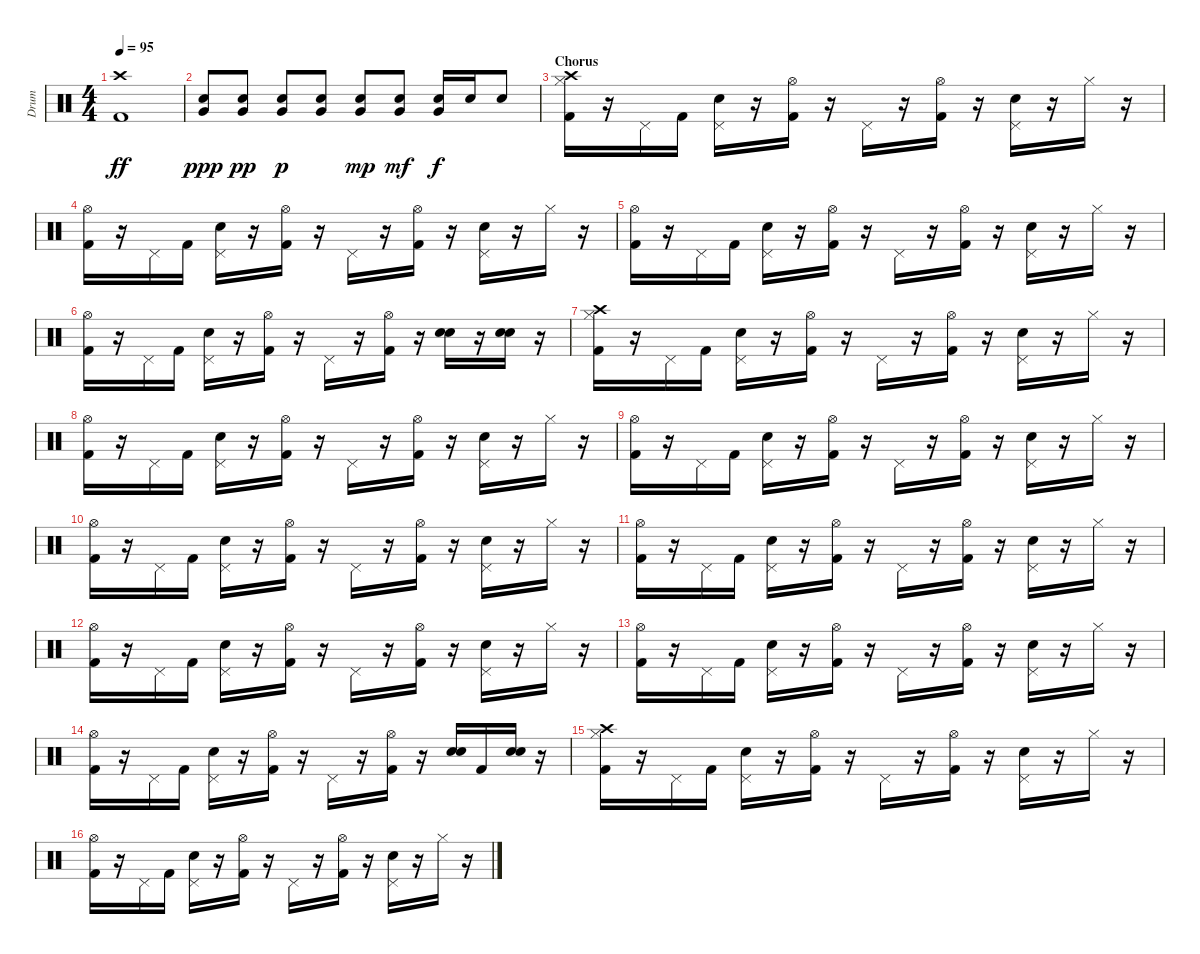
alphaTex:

\track ("Drum" "Drum") {instrument percussion}
\staff {score}
\articulation defaults
\ts (4 4)
\tempo 95
\clef neutral
\ks c
("Crash high (hit)" "Kick (hit) 2").1{dy ff} |
("Electric Snare (hit)" "Very Low Tom (hit)").8{dy ppp} ("Electric Snare (hit)" "Very Low Tom (hit)").8{dy pp} ("Electric Snare (hit)" "Very Low Tom (hit)").8{dy p} ("Electric Snare (hit)" "Very Low Tom (hit)").8 ("Electric Snare (hit)" "Very Low Tom (hit)").8{dy mp} ("Electric Snare (hit)" "Very Low Tom (hit)").8{dy mf} ("Electric Snare (hit)" "Very Low Tom (hit)").16{dy f} "Electric Snare (hit)".16 "Electric Snare (hit)".8 |
\section ("" "Chorus")
("Crash high (hit)" "Hi-Hat (closed)" "Kick (hit) 2").16 r.16 "Pedal Hi-Hat (hit)".16 "Kick (hit) 2".16 ("Pedal Hi-Hat (hit)" "Electric Snare (hit)").16 r.16 ("Hi-Hat (open)" "Kick (hit) 2").16 r.16 "Pedal Hi-Hat (hit)".16 r.16 ("Hi-Hat (open)" "Kick (hit) 2").16 r.16 ("Pedal Hi-Hat (hit)" "Electric Snare (hit)").16 r.16 "Hi-Hat (closed)".16 r.16 |
("Hi-Hat (open)" "Kick (hit) 2").16 r.16 "Pedal Hi-Hat (hit)".16 "Kick (hit) 2".16 ("Pedal Hi-Hat (hit)" "Electric Snare (hit)").16 r.16 ("Hi-Hat (open)" "Kick (hit) 2").16 r.16 "Pedal Hi-Hat (hit)".16 r.16 ("Hi-Hat (open)" "Kick (hit) 2").16 r.16 ("Pedal Hi-Hat (hit)" "Electric Snare (hit)").16 r.16 "Hi-Hat (closed)".16 r.16 |
("Hi-Hat (open)" "Kick (hit) 2").16 r.16 "Pedal Hi-Hat (hit)".16 "Kick (hit) 2".16 ("Pedal Hi-Hat (hit)" "Electric Snare (hit)").16 r.16 ("Hi-Hat (open)" "Kick (hit) 2").16 r.16 "Pedal Hi-Hat (hit)".16 r.16 ("Hi-Hat (open)" "Kick (hit) 2").16 r.16 ("Pedal Hi-Hat (hit)" "Electric Snare (hit)").16 r.16 "Hi-Hat (closed)".16 r.16 |
("Hi-Hat (open)" "Kick (hit) 2").16 r.16 "Pedal Hi-Hat (hit)".16 "Kick (hit) 2".16 ("Pedal Hi-Hat (hit)" "Electric Snare (hit)").16 r.16 ("Hi-Hat (open)" "Kick (hit) 2").16 r.16 "Pedal Hi-Hat (hit)".16 r.16 ("Hi-Hat (open)" "Kick (hit) 2").16 r.16 ("Electric Snare (hit)" "Electric Snare (hit)").16{bd 120} r.16 ("Electric Snare (hit)" "Electric Snare (hit)").16{bd 120} r.16 |
("Crash high (hit)" "Hi-Hat (closed)" "Kick (hit) 2").16 r.16 "Pedal Hi-Hat (hit)".16 "Kick (hit) 2".16 ("Pedal Hi-Hat (hit)" "Electric Snare (hit)").16 r.16 ("Hi-Hat (open)" "Kick (hit) 2").16 r.16 "Pedal Hi-Hat (hit)".16 r.16 ("Hi-Hat (open)" "Kick (hit) 2").16 r.16 ("Pedal Hi-Hat (hit)" "Electric Snare (hit)").16 r.16 "Hi-Hat (closed)".16 r.16 |
("Hi-Hat (open)" "Kick (hit) 2").16 r.16 "Pedal Hi-Hat (hit)".16 "Kick (hit) 2".16 ("Pedal Hi-Hat (hit)" "Electric Snare (hit)").16 r.16 ("Hi-Hat (open)" "Kick (hit) 2").16 r.16 "Pedal Hi-Hat (hit)".16 r.16 ("Hi-Hat (open)" "Kick (hit) 2").16 r.16 ("Pedal Hi-Hat (hit)" "Electric Snare (hit)").16 r.16 "Hi-Hat (closed)".16 r.16 |
("Hi-Hat (open)" "Kick (hit) 2").16 r.16 "Pedal Hi-Hat (hit)".16 "Kick (hit) 2".16 ("Pedal Hi-Hat (hit)" "Electric Snare (hit)").16 r.16 ("Hi-Hat (open)" "Kick (hit) 2").16 r.16 "Pedal Hi-Hat (hit)".16 r.16 ("Hi-Hat (open)" "Kick (hit) 2").16 r.16 ("Pedal Hi-Hat (hit)" "Electric Snare (hit)").16 r.16 "Hi-Hat (closed)".16 r.16 |
("Hi-Hat (open)" "Kick (hit) 2").16 r.16 "Pedal Hi-Hat (hit)".16 "Kick (hit) 2".16 ("Pedal Hi-Hat (hit)" "Electric Snare (hit)").16 r.16 ("Hi-Hat (open)" "Kick (hit) 2").16 r.16 "Pedal Hi-Hat (hit)".16 r.16 ("Hi-Hat (open)" "Kick (hit) 2").16 r.16 ("Pedal Hi-Hat (hit)" "Electric Snare (hit)").16 r.16 "Hi-Hat (closed)".16 r.16 |
("Hi-Hat (open)" "Kick (hit) 2").16 r.16 "Pedal Hi-Hat (hit)".16 "Kick (hit) 2".16 ("Pedal Hi-Hat (hit)" "Electric Snare (hit)").16 r.16 ("Hi-Hat (open)" "Kick (hit) 2").16 r.16 "Pedal Hi-Hat (hit)".16 r.16 ("Hi-Hat (open)" "Kick (hit) 2").16 r.16 ("Pedal Hi-Hat (hit)" "Electric Snare (hit)").16 r.16 "Hi-Hat (closed)".16 r.16 |
("Hi-Hat (open)" "Kick (hit) 2").16 r.16 "Pedal Hi-Hat (hit)".16 "Kick (hit) 2".16 ("Pedal Hi-Hat (hit)" "Electric Snare (hit)").16 r.16 ("Hi-Hat (open)" "Kick (hit) 2").16 r.16 "Pedal Hi-Hat (hit)".16 r.16 ("Hi-Hat (open)" "Kick (hit) 2").16 r.16 ("Pedal Hi-Hat (hit)" "Electric Snare (hit)").16 r.16 "Hi-Hat (closed)".16 r.16 |
("Hi-Hat (open)" "Kick (hit) 2").16 r.16 "Pedal Hi-Hat (hit)".16 "Kick (hit) 2".16 ("Pedal Hi-Hat (hit)" "Electric Snare (hit)").16 r.16 ("Hi-Hat (open)" "Kick (hit) 2").16 r.16 "Pedal Hi-Hat (hit)".16 r.16 ("Hi-Hat (open)" "Kick (hit) 2").16 r.16 ("Pedal Hi-Hat (hit)" "Electric Snare (hit)").16 r.16 "Hi-Hat (closed)".16 r.16 |
("Hi-Hat (open)" "Kick (hit) 2").16 r.16 "Pedal Hi-Hat (hit)".16 "Kick (hit) 2".16 ("Pedal Hi-Hat (hit)" "Electric Snare (hit)").16 r.16 ("Hi-Hat (open)" "Kick (hit) 2").16 r.16 "Pedal Hi-Hat (hit)".16 r.16 ("Hi-Hat (open)" "Kick (hit) 2").16 r.16 ("Electric Snare (hit)" "Electric Snare (hit)").16{bd 60} "Kick (hit) 2".16 ("Electric Snare (hit)" "Electric Snare (hit)").16{bd 60} r.16 |
("Crash high (hit)" "Hi-Hat (closed)" "Kick (hit) 2").16 r.16 "Pedal Hi-Hat (hit)".16 "Kick (hit) 2".16 ("Pedal Hi-Hat (hit)" "Electric Snare (hit)").16 r.16 ("Hi-Hat (open)" "Kick (hit) 2").16 r.16 "Pedal Hi-Hat (hit)".16 r.16 ("Hi-Hat (open)" "Kick (hit) 2").16 r.16 ("Pedal Hi-Hat (hit)" "Electric Snare (hit)").16 r.16 "Hi-Hat (closed)".16 r.16 |
("Hi-Hat (open)" "Kick (hit) 2").16 r.16 "Pedal Hi-Hat (hit)".16 "Kick (hit) 2".16 ("Pedal Hi-Hat (hit)" "Electric Snare (hit)").16 r.16 ("Hi-Hat (open)" "Kick (hit) 2").16 r.16 "Pedal Hi-Hat (hit)".16 r.16 ("Hi-Hat (open)" "Kick (hit) 2").16 r.16 ("Pedal Hi-Hat (hit)" "Electric Snare (hit)").16 r.16 "Hi-Hat (closed)".16 r.16
